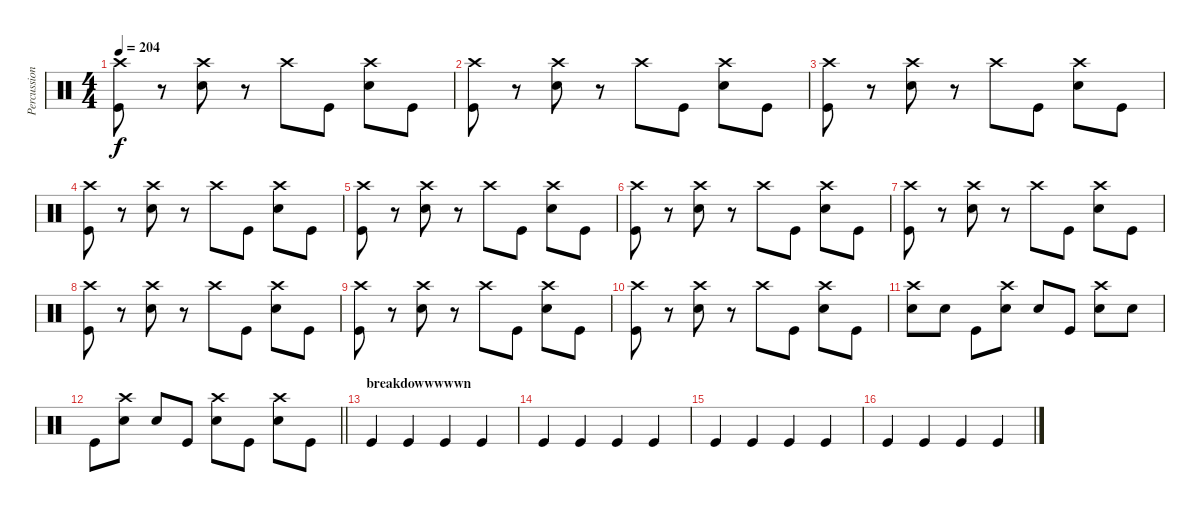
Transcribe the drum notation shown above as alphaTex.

\track ("Percussion" "Percussion") {instrument percussion}
\staff {score}
\articulation defaults
\ts (4 4)
\tempo 204
\clef neutral
\ks c
("Crash high (hit)" "Kick (hit)").8{dy f} r.8 ("Crash high (hit)" "Snare (hit) 2").8 r.8 "Crash high (hit)".8 "Kick (hit)".8 ("Crash high (hit)" "Snare (hit) 2").8 "Kick (hit)".8 |
("Crash high (hit)" "Kick (hit)").8 r.8 ("Crash high (hit)" "Snare (hit) 2").8 r.8 "Crash high (hit)".8 "Kick (hit)".8 ("Crash high (hit)" "Snare (hit) 2").8 "Kick (hit)".8 |
("Crash high (hit)" "Kick (hit)").8 r.8 ("Crash high (hit)" "Snare (hit) 2").8 r.8 "Crash high (hit)".8 "Kick (hit)".8 ("Crash high (hit)" "Snare (hit) 2").8 "Kick (hit)".8 |
("Crash high (hit)" "Kick (hit)").8 r.8 ("Crash high (hit)" "Snare (hit) 2").8 r.8 "Crash high (hit)".8 "Kick (hit)".8 ("Crash high (hit)" "Snare (hit) 2").8 "Kick (hit)".8 |
("Crash high (hit)" "Kick (hit)").8 r.8 ("Crash high (hit)" "Snare (hit) 2").8 r.8 "Crash high (hit)".8 "Kick (hit)".8 ("Crash high (hit)" "Snare (hit) 2").8 "Kick (hit)".8 |
("Crash high (hit)" "Kick (hit)").8 r.8 ("Crash high (hit)" "Snare (hit) 2").8 r.8 "Crash high (hit)".8 "Kick (hit)".8 ("Crash high (hit)" "Snare (hit) 2").8 "Kick (hit)".8 |
("Crash high (hit)" "Kick (hit)").8 r.8 ("Crash high (hit)" "Snare (hit) 2").8 r.8 "Crash high (hit)".8 "Kick (hit)".8 ("Crash high (hit)" "Snare (hit) 2").8 "Kick (hit)".8 |
("Crash high (hit)" "Kick (hit)").8 r.8 ("Crash high (hit)" "Snare (hit) 2").8 r.8 "Crash high (hit)".8 "Kick (hit)".8 ("Crash high (hit)" "Snare (hit) 2").8 "Kick (hit)".8 |
("Crash high (hit)" "Kick (hit)").8 r.8 ("Crash high (hit)" "Snare (hit) 2").8 r.8 "Crash high (hit)".8 "Kick (hit)".8 ("Crash high (hit)" "Snare (hit) 2").8 "Kick (hit)".8 |
("Crash high (hit)" "Kick (hit)").8 r.8 ("Crash high (hit)" "Snare (hit) 2").8 r.8 "Crash high (hit)".8 "Kick (hit)".8 ("Crash high (hit)" "Snare (hit) 2").8 "Kick (hit)".8 |
("Crash high (hit)" "Snare (hit) 2").8 "Snare (hit) 2".8 "Kick (hit)".8 ("Crash high (hit)" "Snare (hit) 2").8 "Snare (hit) 2".8 "Kick (hit)".8 ("Crash high (hit)" "Snare (hit) 2").8 "Snare (hit) 2".8 |
\barLineRight lightlight "Kick (hit)".8
("Crash high (hit)" "Snare (hit) 2").8 "Snare (hit) 2".8 "Kick (hit)".8 ("Crash high (hit)" "Snare (hit) 2").8 "Kick (hit)".8 ("Crash high (hit)" "Snare (hit) 2").8 "Kick (hit)".8 |
\section ("" "breakdowwwwwn")
"Kick (hit)".4 "Kick (hit)".4 "Kick (hit)".4 "Kick (hit)".4 |
"Kick (hit)".4 "Kick (hit)".4 "Kick (hit)".4 "Kick (hit)".4 |
"Kick (hit)".4 "Kick (hit)".4 "Kick (hit)".4 "Kick (hit)".4 |
"Kick (hit)".4 "Kick (hit)".4 "Kick (hit)".4 "Kick (hit)".4
